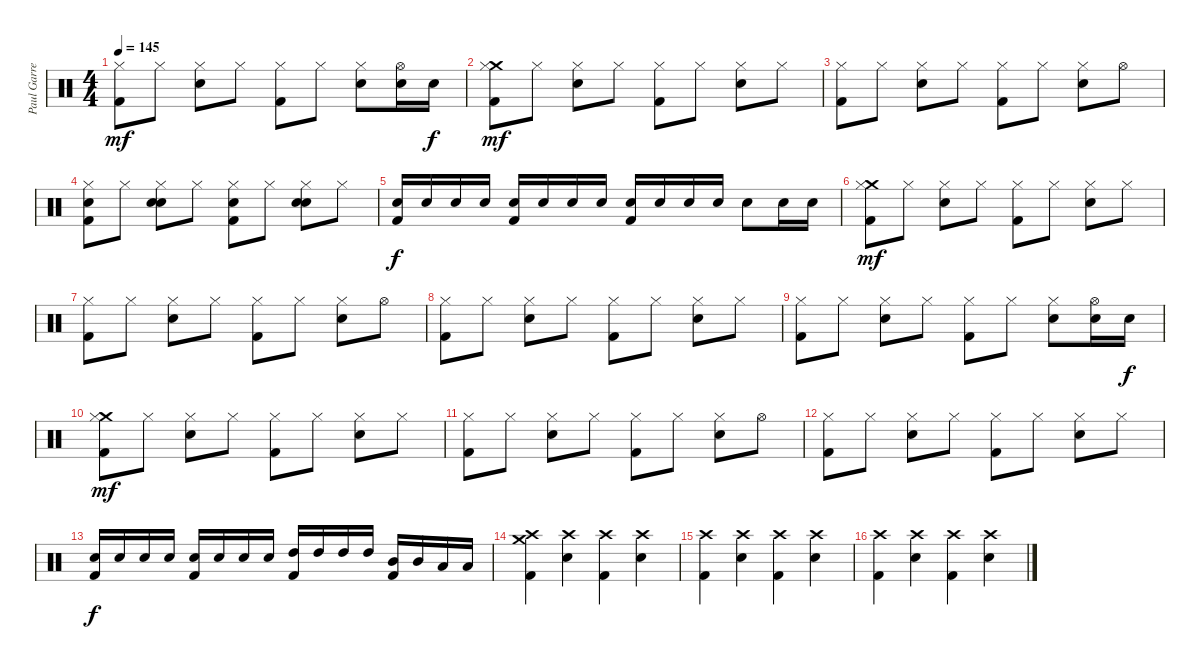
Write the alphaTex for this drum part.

\track ("Paul Garred (Percussion)" "Paul Garre") {instrument percussion}
\staff {score}
\articulation defaults
\ts (4 4)
\tempo 145
\clef neutral
\ks c
("Hi-Hat (closed)" "Kick (hit) 2").8{dy mf} "Hi-Hat (closed)".8 ("Hi-Hat (closed)" "Snare (hit) 2").8 "Hi-Hat (closed)".8 ("Hi-Hat (closed)" "Kick (hit) 2").8 "Hi-Hat (closed)".8 ("Hi-Hat (closed)" "Snare (hit) 2").8 ("Hi-Hat (open)" "Snare (hit) 2").16 "Snare (hit) 2".16{dy f} |
("Crash medium (hit)" "Hi-Hat (closed)" "Kick (hit) 2").8{dy mf} "Hi-Hat (closed)".8 ("Hi-Hat (closed)" "Snare (hit) 2").8 "Hi-Hat (closed)".8 ("Hi-Hat (closed)" "Kick (hit) 2").8 "Hi-Hat (closed)".8 ("Hi-Hat (closed)" "Snare (hit) 2").8 "Hi-Hat (closed)".8 |
("Hi-Hat (closed)" "Kick (hit) 2").8 "Hi-Hat (closed)".8 ("Hi-Hat (closed)" "Snare (hit) 2").8 "Hi-Hat (closed)".8 ("Hi-Hat (closed)" "Kick (hit) 2").8 "Hi-Hat (closed)".8 ("Hi-Hat (closed)" "Snare (hit) 2").8 "Hi-Hat (open)".8 |
("Hi-Hat (closed)" "Snare (hit) 2" "Kick (hit) 2").8 "Hi-Hat (closed)".8 ("Hi-Hat (closed)" "Snare (hit) 2" "Snare (hit) 2").8 "Hi-Hat (closed)".8 ("Hi-Hat (closed)" "Snare (hit) 2" "Kick (hit) 2").8 "Hi-Hat (closed)".8 ("Hi-Hat (closed)" "Snare (hit) 2" "Snare (hit) 2").8 "Hi-Hat (closed)".8 |
("Snare (hit) 2" "Kick (hit) 2").16{dy f} "Snare (hit) 2".16 "Snare (hit) 2".16 "Snare (hit) 2".16 ("Snare (hit) 2" "Kick (hit) 2").16 "Snare (hit) 2".16 "Snare (hit) 2".16 "Snare (hit) 2".16 ("Snare (hit) 2" "Kick (hit) 2").16 "Snare (hit) 2".16 "Snare (hit) 2".16 "Snare (hit) 2".16 "Snare (hit) 2".8 "Snare (hit) 2".16 "Snare (hit) 2".16 |
("Crash medium (hit)" "Hi-Hat (closed)" "Kick (hit) 2").8{dy mf} "Hi-Hat (closed)".8 ("Hi-Hat (closed)" "Snare (hit) 2").8 "Hi-Hat (closed)".8 ("Hi-Hat (closed)" "Kick (hit) 2").8 "Hi-Hat (closed)".8 ("Hi-Hat (closed)" "Snare (hit) 2").8 "Hi-Hat (closed)".8 |
("Hi-Hat (closed)" "Kick (hit) 2").8 "Hi-Hat (closed)".8 ("Hi-Hat (closed)" "Snare (hit) 2").8 "Hi-Hat (closed)".8 ("Hi-Hat (closed)" "Kick (hit) 2").8 "Hi-Hat (closed)".8 ("Hi-Hat (closed)" "Snare (hit) 2").8 "Hi-Hat (open)".8 |
("Hi-Hat (closed)" "Kick (hit) 2").8 "Hi-Hat (closed)".8 ("Hi-Hat (closed)" "Snare (hit) 2").8 "Hi-Hat (closed)".8 ("Hi-Hat (closed)" "Kick (hit) 2").8 "Hi-Hat (closed)".8 ("Hi-Hat (closed)" "Snare (hit) 2").8 "Hi-Hat (closed)".8 |
("Hi-Hat (closed)" "Kick (hit) 2").8 "Hi-Hat (closed)".8 ("Hi-Hat (closed)" "Snare (hit) 2").8 "Hi-Hat (closed)".8 ("Hi-Hat (closed)" "Kick (hit) 2").8 "Hi-Hat (closed)".8 ("Hi-Hat (closed)" "Snare (hit) 2").8 ("Hi-Hat (open)" "Snare (hit) 2").16 "Snare (hit) 2".16{dy f} |
("Crash medium (hit)" "Hi-Hat (closed)" "Kick (hit) 2").8{dy mf} "Hi-Hat (closed)".8 ("Hi-Hat (closed)" "Snare (hit) 2").8 "Hi-Hat (closed)".8 ("Hi-Hat (closed)" "Kick (hit) 2").8 "Hi-Hat (closed)".8 ("Hi-Hat (closed)" "Snare (hit) 2").8 "Hi-Hat (closed)".8 |
("Hi-Hat (closed)" "Kick (hit) 2").8 "Hi-Hat (closed)".8 ("Hi-Hat (closed)" "Snare (hit) 2").8 "Hi-Hat (closed)".8 ("Hi-Hat (closed)" "Kick (hit) 2").8 "Hi-Hat (closed)".8 ("Hi-Hat (closed)" "Snare (hit) 2").8 "Hi-Hat (open)".8 |
("Hi-Hat (closed)" "Kick (hit) 2").8 "Hi-Hat (closed)".8 ("Hi-Hat (closed)" "Snare (hit) 2").8 "Hi-Hat (closed)".8 ("Hi-Hat (closed)" "Kick (hit) 2").8 "Hi-Hat (closed)".8 ("Hi-Hat (closed)" "Snare (hit) 2").8 "Hi-Hat (closed)".8 |
("Snare (hit) 2" "Kick (hit) 2").16{dy f} "Snare (hit) 2".16 "Snare (hit) 2".16 "Snare (hit) 2".16 ("Snare (hit) 2" "Kick (hit) 2").16 "Snare (hit) 2".16 "Snare (hit) 2".16 "Snare (hit) 2".16 ("High Tom (hit)" "Kick (hit) 2").16 "High Tom (hit)".16 "High Tom (hit)".16 "High Tom (hit)".16 ("Mid Tom (hit)" "Kick (hit) 2").16 "Mid Tom (hit)".16 "Low Tom (hit)".16 "Low Tom (hit)".16 |
("Crash medium (hit)" "Crash high (hit)" "Kick (hit) 2").4 ("Crash high (hit)" "Snare (hit) 2").4 ("Crash high (hit)" "Kick (hit) 2").4 ("Crash high (hit)" "Snare (hit) 2").4 |
("Crash high (hit)" "Kick (hit) 2").4 ("Crash high (hit)" "Snare (hit) 2").4 ("Crash high (hit)" "Kick (hit) 2").4 ("Crash high (hit)" "Snare (hit) 2").4 |
("Crash high (hit)" "Kick (hit) 2").4 ("Crash high (hit)" "Snare (hit) 2").4 ("Crash high (hit)" "Kick (hit) 2").4 ("Crash high (hit)" "Snare (hit) 2").4
